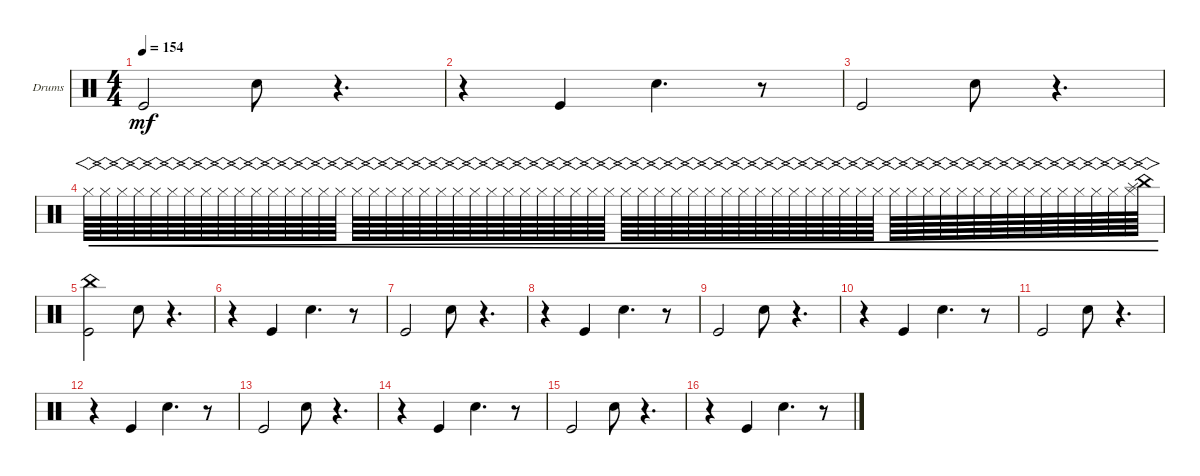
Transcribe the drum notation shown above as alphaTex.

\defaultSystemsLayout 4
\bracketExtendMode groupsimilarinstruments
\firstSystemTrackNameOrientation horizontal
\otherSystemsTrackNameOrientation horizontal
\track ("Drumkit" "Drums") {instrument percussion}
\staff {score}
\articulation defaults
\ts (4 4)
\tempo 154
\clef neutral
\ks c "Kick (hit)".2{dy mf} "Snare (hit) 2".8
r.4{d} |
r.4 "Kick (hit)".4 "Snare (hit) 2".4{d} r.8 |
"Kick (hit)".2 "Snare (hit) 2".8 r.4{d} |
"Hi-Hat (closed)".64{vs cre} "Hi-Hat (closed)".64{vs cre} "Hi-Hat (closed)".64{vs cre} "Hi-Hat (closed)".64{vs cre} "Hi-Hat (closed)".64{vs cre} "Hi-Hat (closed)".64{vs cre} "Hi-Hat (closed)".64{vs cre} "Hi-Hat (closed)".64{vs cre} "Hi-Hat (closed)".64{vs cre} "Hi-Hat (closed)".64{vs cre} "Hi-Hat (closed)".64{vs cre} "Hi-Hat (closed)".64{vs cre} "Hi-Hat (closed)".64{vs cre} "Hi-Hat (closed)".64{vs cre} "Hi-Hat (closed)".64{vs cre} "Hi-Hat (closed)".64{vs cre} "Hi-Hat (closed)".64{vs cre} "Hi-Hat (closed)".64{vs cre} "Hi-Hat (closed)".64{vs cre} "Hi-Hat (closed)".64{vs cre} "Hi-Hat (closed)".64{vs cre} "Hi-Hat (closed)".64{vs cre} "Hi-Hat (closed)".64{vs cre} "Hi-Hat (closed)".64{vs cre} "Hi-Hat (closed)".64{vs cre} "Hi-Hat (closed)".64{vs cre} "Hi-Hat (closed)".64{vs cre} "Hi-Hat (closed)".64{vs cre} "Hi-Hat (closed)".64{vs cre} "Hi-Hat (closed)".64{vs cre} "Hi-Hat (closed)".64{vs cre} "Hi-Hat (closed)".64{vs cre} "Hi-Hat (closed)".64{vs cre} "Hi-Hat (closed)".64{vs cre} "Hi-Hat (closed)".64{vs cre} "Hi-Hat (closed)".64{vs cre} "Hi-Hat (closed)".64{vs cre} "Hi-Hat (closed)".64{vs cre} "Hi-Hat (closed)".64{vs cre} "Hi-Hat (closed)".64{vs cre} "Hi-Hat (closed)".64{vs cre} "Hi-Hat (closed)".64{vs cre} "Hi-Hat (closed)".64{vs cre} "Hi-Hat (closed)".64{vs cre} "Hi-Hat (closed)".64{vs cre} "Hi-Hat (closed)".64{vs cre} "Hi-Hat (closed)".64{vs cre} "Hi-Hat (closed)".64{vs cre} "Hi-Hat (closed)".64{vs cre} "Hi-Hat (closed)".64{vs cre} "Hi-Hat (closed)".64{vs cre} "Hi-Hat (closed)".64{vs cre} "Hi-Hat (closed)".64{vs cre} "Hi-Hat (closed)".64{vs cre} "Hi-Hat (closed)".64{vs cre} "Hi-Hat (closed)".64{vs cre} "Hi-Hat (closed)".64{vs cre} "Hi-Hat (closed)".64{vs cre} "Hi-Hat (closed)".64{vs cre} "Hi-Hat (closed)".64{vs cre} "Hi-Hat (closed)".64{vs cre} "Hi-Hat (closed)".64{vs cre} "Hi-Hat (closed)".64{vs cre} ("Splash (hit)" "China (hit)").64{vs cre} |
("Kick (hit)" "China (hit)").2 "Snare (hit) 2".8 r.4{d} |
r.4 "Kick (hit)".4 "Snare (hit) 2".4{d} r.8 |
"Kick (hit)".2 "Snare (hit) 2".8 r.4{d} |
r.4 "Kick (hit)".4 "Snare (hit) 2".4{d} r.8 |
"Kick (hit)".2 "Snare (hit) 2".8 r.4{d} |
r.4 "Kick (hit)".4 "Snare (hit) 2".4{d} r.8 |
"Kick (hit)".2 "Snare (hit) 2".8 r.4{d} |
r.4 "Kick (hit)".4 "Snare (hit) 2".4{d} r.8 |
"Kick (hit)".2 "Snare (hit) 2".8 r.4{d} |
r.4 "Kick (hit)".4 "Snare (hit) 2".4{d} r.8 |
"Kick (hit)".2 "Snare (hit) 2".8 r.4{d} |
r.4 "Kick (hit)".4 "Snare (hit) 2".4{d} r.8
